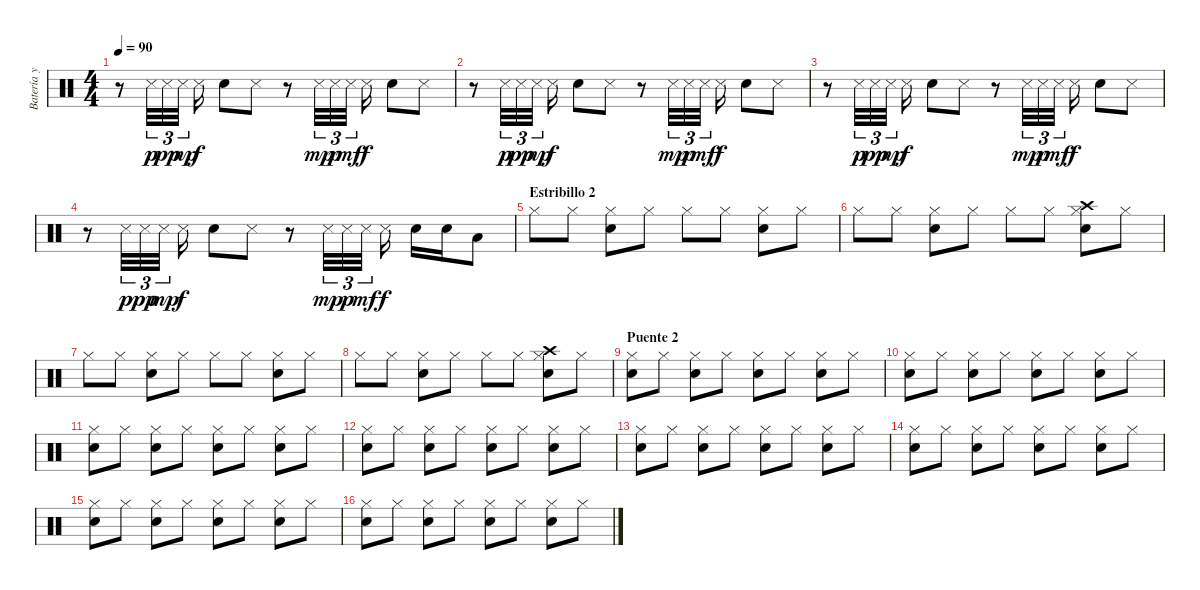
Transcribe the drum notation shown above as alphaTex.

\track ("Batería y risa" "Batería y ") {instrument percussion}
\staff {score}
\articulation defaults
\ts (4 4)
\tempo 90
\clef neutral
\ks c
r.8{dy f} "Snare (side stick) 3".32{tu (3 2) dy p} "Snare (side stick) 3".32{tu (3 2) dy pp} "Snare (side stick) 3".32{tu (3 2) dy mp} "Snare (side stick) 3".16{dy f} "Snare (hit) 2".8 "Snare (side stick) 3".8 r.8 "Snare (side stick) 3".32{tu (3 2) dy mp} "Snare (side stick) 3".32{tu (3 2) dy p} "Snare (side stick) 3".32{tu (3 2) dy mf} "Snare (side stick) 3".16{dy f} "Snare (hit) 2".8 "Snare (side stick) 3".8 |
r.8 "Snare (side stick) 3".32{tu (3 2) dy p} "Snare (side stick) 3".32{tu (3 2) dy pp} "Snare (side stick) 3".32{tu (3 2) dy mp} "Snare (side stick) 3".16{dy f} "Snare (hit) 2".8 "Snare (side stick) 3".8 r.8 "Snare (side stick) 3".32{tu (3 2) dy mp} "Snare (side stick) 3".32{tu (3 2) dy p} "Snare (side stick) 3".32{tu (3 2) dy mf} "Snare (side stick) 3".16{dy f} "Snare (hit) 2".8 "Snare (side stick) 3".8 |
r.8 "Snare (side stick) 3".32{tu (3 2) dy p} "Snare (side stick) 3".32{tu (3 2) dy pp} "Snare (side stick) 3".32{tu (3 2) dy mp} "Snare (side stick) 3".16{dy f} "Snare (hit) 2".8 "Snare (side stick) 3".8 r.8 "Snare (side stick) 3".32{tu (3 2) dy mp} "Snare (side stick) 3".32{tu (3 2) dy p} "Snare (side stick) 3".32{tu (3 2) dy mf} "Snare (side stick) 3".16{dy f} "Snare (hit) 2".8 "Snare (side stick) 3".8 |
r.8 "Snare (side stick) 3".32{tu (3 2) dy p} "Snare (side stick) 3".32{tu (3 2) dy pp} "Snare (side stick) 3".32{tu (3 2) dy mp} "Snare (side stick) 3".16{dy f} "Snare (hit) 2".8 "Snare (side stick) 3".8 r.8 "Snare (side stick) 3".32{tu (3 2) dy mp} "Snare (side stick) 3".32{tu (3 2) dy p} "Snare (side stick) 3".32{tu (3 2) dy mf} "Snare (side stick) 3".16{dy f} "Snare (hit) 2".16 "Snare (hit) 2".16 "Low Tom (hit)".8 |
\section ("" "Estribillo 2")
"Hi-Hat (closed)".8 "Hi-Hat (closed)".8 ("Hi-Hat (closed)" "Snare (hit) 2").8 "Hi-Hat (closed)".8 "Hi-Hat (closed)".8 "Hi-Hat (closed)".8 ("Hi-Hat (closed)" "Snare (hit) 2").8 "Hi-Hat (closed)".8 |
"Hi-Hat (closed)".8 "Hi-Hat (closed)".8 ("Hi-Hat (closed)" "Snare (hit) 2").8 "Hi-Hat (closed)".8 "Hi-Hat (closed)".8 "Hi-Hat (closed)".8 ("Hi-Hat (closed)" "Snare (hit) 2" "Crash high (hit)").8 "Hi-Hat (closed)".8 |
"Hi-Hat (closed)".8 "Hi-Hat (closed)".8 ("Hi-Hat (closed)" "Snare (hit) 2").8 "Hi-Hat (closed)".8 "Hi-Hat (closed)".8 "Hi-Hat (closed)".8 ("Hi-Hat (closed)" "Snare (hit) 2").8 "Hi-Hat (closed)".8 |
"Hi-Hat (closed)".8 "Hi-Hat (closed)".8 ("Hi-Hat (closed)" "Snare (hit) 2").8 "Hi-Hat (closed)".8 "Hi-Hat (closed)".8 "Hi-Hat (closed)".8 ("Hi-Hat (closed)" "Snare (hit) 2" "Crash high (hit)").8 "Hi-Hat (closed)".8 |
\section ("" "Puente 2")
("Hi-Hat (closed)" "Snare (hit) 2").8 "Hi-Hat (closed)".8 ("Hi-Hat (closed)" "Snare (hit) 2").8 "Hi-Hat (closed)".8 ("Hi-Hat (closed)" "Snare (hit) 2").8 "Hi-Hat (closed)".8 ("Hi-Hat (closed)" "Snare (hit) 2").8 "Hi-Hat (closed)".8 |
("Hi-Hat (closed)" "Snare (hit) 2").8 "Hi-Hat (closed)".8 ("Hi-Hat (closed)" "Snare (hit) 2").8 "Hi-Hat (closed)".8 ("Hi-Hat (closed)" "Snare (hit) 2").8 "Hi-Hat (closed)".8 ("Hi-Hat (closed)" "Snare (hit) 2").8 "Hi-Hat (closed)".8 |
("Hi-Hat (closed)" "Snare (hit) 2").8 "Hi-Hat (closed)".8 ("Hi-Hat (closed)" "Snare (hit) 2").8 "Hi-Hat (closed)".8 ("Hi-Hat (closed)" "Snare (hit) 2").8 "Hi-Hat (closed)".8 ("Hi-Hat (closed)" "Snare (hit) 2").8 "Hi-Hat (closed)".8 |
("Hi-Hat (closed)" "Snare (hit) 2").8 "Hi-Hat (closed)".8 ("Hi-Hat (closed)" "Snare (hit) 2").8 "Hi-Hat (closed)".8 ("Hi-Hat (closed)" "Snare (hit) 2").8 "Hi-Hat (closed)".8 ("Hi-Hat (closed)" "Snare (hit) 2").8 "Hi-Hat (closed)".8 |
("Hi-Hat (closed)" "Snare (hit) 2").8 "Hi-Hat (closed)".8 ("Hi-Hat (closed)" "Snare (hit) 2").8 "Hi-Hat (closed)".8 ("Hi-Hat (closed)" "Snare (hit) 2").8 "Hi-Hat (closed)".8 ("Hi-Hat (closed)" "Snare (hit) 2").8 "Hi-Hat (closed)".8 |
("Hi-Hat (closed)" "Snare (hit) 2").8 "Hi-Hat (closed)".8 ("Hi-Hat (closed)" "Snare (hit) 2").8 "Hi-Hat (closed)".8 ("Hi-Hat (closed)" "Snare (hit) 2").8 "Hi-Hat (closed)".8 ("Hi-Hat (closed)" "Snare (hit) 2").8 "Hi-Hat (closed)".8 |
("Hi-Hat (closed)" "Snare (hit) 2").8 "Hi-Hat (closed)".8 ("Hi-Hat (closed)" "Snare (hit) 2").8 "Hi-Hat (closed)".8 ("Hi-Hat (closed)" "Snare (hit) 2").8 "Hi-Hat (closed)".8 ("Hi-Hat (closed)" "Snare (hit) 2").8 "Hi-Hat (closed)".8 |
("Hi-Hat (closed)" "Snare (hit) 2").8 "Hi-Hat (closed)".8 ("Hi-Hat (closed)" "Snare (hit) 2").8 "Hi-Hat (closed)".8 ("Hi-Hat (closed)" "Snare (hit) 2").8 "Hi-Hat (closed)".8 ("Hi-Hat (closed)" "Snare (hit) 2").8 "Hi-Hat (closed)".8
